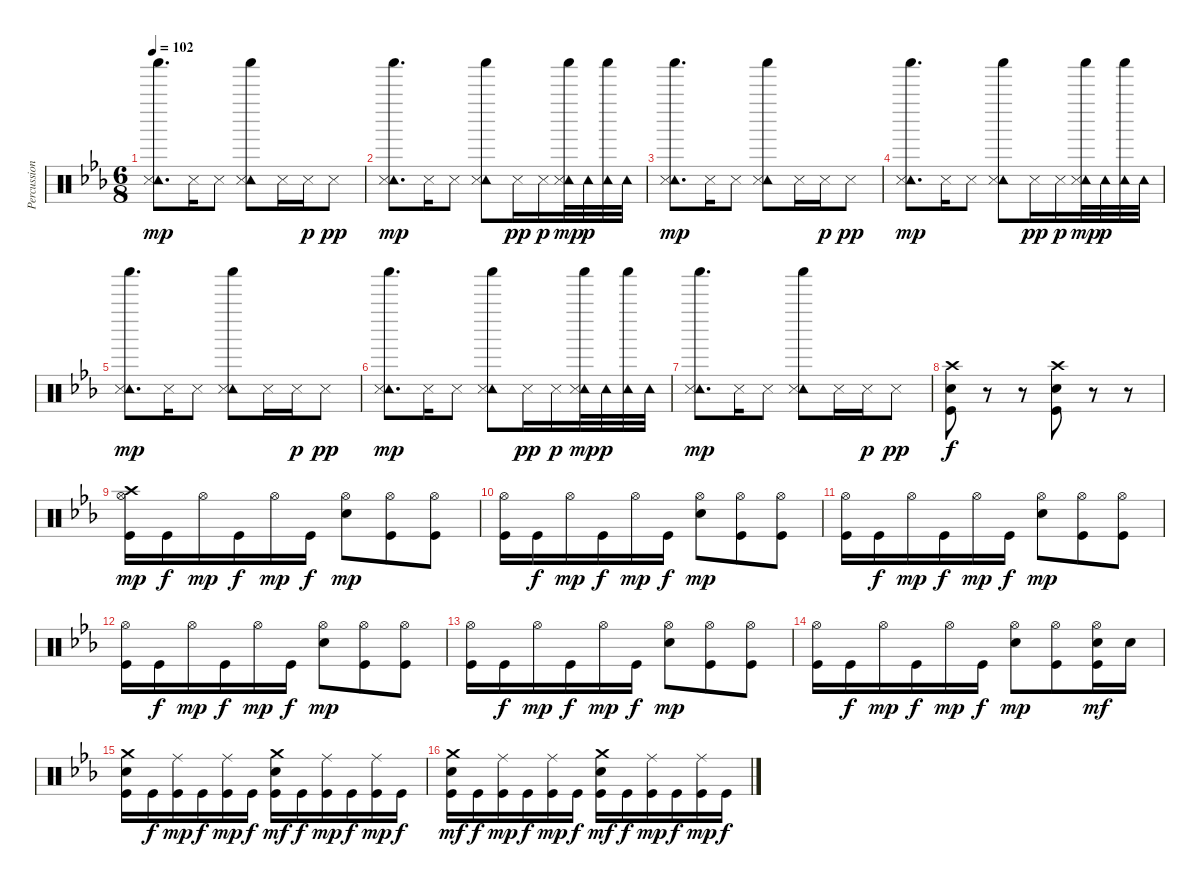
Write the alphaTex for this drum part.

\track ("Percussion" "Percussion") {instrument percussion}
\staff {score}
\articulation defaults
\ts (6 8)
\tempo 102
\clef neutral
\ks cminor
("Shaker (hit)" "Tambourine (hit)" "Metronome (hit)").8{d dy mp} "Metronome (hit)".16 "Metronome (hit)".8 ("Shaker (hit)" "Tambourine (hit)" "Metronome (hit)").8 "Metronome (hit)".16 "Metronome (hit)".16{dy p} "Metronome (hit)".8{dy pp} |
("Shaker (hit)" "Tambourine (hit)" "Metronome (hit)").8{d dy mp} "Metronome (hit)".16 "Metronome (hit)".8 ("Shaker (hit)" "Tambourine (hit)" "Metronome (hit)").8 "Metronome (hit)".16{dy pp} "Metronome (hit)".16{dy p} ("Shaker (hit)" "Tambourine (hit)" "Metronome (hit)").32{dy mp} "Tambourine (hit)".32{dy p} ("Shaker (hit)" "Tambourine (hit)").32 "Tambourine (hit)".32 |
("Shaker (hit)" "Tambourine (hit)" "Metronome (hit)").8{d dy mp} "Metronome (hit)".16 "Metronome (hit)".8 ("Shaker (hit)" "Tambourine (hit)" "Metronome (hit)").8 "Metronome (hit)".16 "Metronome (hit)".16{dy p} "Metronome (hit)".8{dy pp} |
("Shaker (hit)" "Tambourine (hit)" "Metronome (hit)").8{d dy mp} "Metronome (hit)".16 "Metronome (hit)".8 ("Shaker (hit)" "Tambourine (hit)" "Metronome (hit)").8 "Metronome (hit)".16{dy pp} "Metronome (hit)".16{dy p} ("Shaker (hit)" "Tambourine (hit)" "Metronome (hit)").32{dy mp} "Tambourine (hit)".32{dy p} ("Shaker (hit)" "Tambourine (hit)").32 "Tambourine (hit)".32 |
("Shaker (hit)" "Tambourine (hit)" "Metronome (hit)").8{d dy mp} "Metronome (hit)".16 "Metronome (hit)".8 ("Shaker (hit)" "Tambourine (hit)" "Metronome (hit)").8 "Metronome (hit)".16 "Metronome (hit)".16{dy p} "Metronome (hit)".8{dy pp} |
("Shaker (hit)" "Tambourine (hit)" "Metronome (hit)").8{d dy mp} "Metronome (hit)".16 "Metronome (hit)".8 ("Shaker (hit)" "Tambourine (hit)" "Metronome (hit)").8 "Metronome (hit)".16{dy pp} "Metronome (hit)".16{dy p} ("Shaker (hit)" "Tambourine (hit)" "Metronome (hit)").32{dy mp} "Tambourine (hit)".32{dy p} ("Shaker (hit)" "Tambourine (hit)").32 "Tambourine (hit)".32 |
("Shaker (hit)" "Tambourine (hit)" "Metronome (hit)").8{d dy mp} "Metronome (hit)".16 "Metronome (hit)".8 ("Shaker (hit)" "Tambourine (hit)" "Metronome (hit)").8 "Metronome (hit)".16 "Metronome (hit)".16{dy p} "Metronome (hit)".8{dy pp} |
("Crash high (hit)" "Snare (hit) 2" "Kick (hit)").8{dy f} r.8 r.8 ("Crash high (hit)" "Snare (hit) 2" "Kick (hit)").8 r.8 r.8 |
("Crash high (hit)" "Hi-Hat (open)" "Kick (hit)").16{dy mp} "Kick (hit)".16{dy f} "Hi-Hat (open)".16{dy mp} "Kick (hit)".16{dy f} "Hi-Hat (open)".16{dy mp} "Kick (hit)".16{dy f} ("Hi-Hat (open)" "Snare (hit) 2").8{dy mp} ("Hi-Hat (open)" "Kick (hit)").8 ("Hi-Hat (open)" "Kick (hit)").8 |
("Hi-Hat (open)" "Kick (hit)").16 "Kick (hit)".16{dy f} "Hi-Hat (open)".16{dy mp} "Kick (hit)".16{dy f} "Hi-Hat (open)".16{dy mp} "Kick (hit)".16{dy f} ("Hi-Hat (open)" "Snare (hit) 2").8{dy mp} ("Hi-Hat (open)" "Kick (hit)").8 ("Hi-Hat (open)" "Kick (hit)").8 |
("Hi-Hat (open)" "Kick (hit)").16 "Kick (hit)".16{dy f} "Hi-Hat (open)".16{dy mp} "Kick (hit)".16{dy f} "Hi-Hat (open)".16{dy mp} "Kick (hit)".16{dy f} ("Hi-Hat (open)" "Snare (hit) 2").8{dy mp} ("Hi-Hat (open)" "Kick (hit)").8 ("Hi-Hat (open)" "Kick (hit)").8 |
("Hi-Hat (open)" "Kick (hit)").16 "Kick (hit)".16{dy f} "Hi-Hat (open)".16{dy mp} "Kick (hit)".16{dy f} "Hi-Hat (open)".16{dy mp} "Kick (hit)".16{dy f} ("Hi-Hat (open)" "Snare (hit) 2").8{dy mp} ("Hi-Hat (open)" "Kick (hit)").8 ("Hi-Hat (open)" "Kick (hit)").8 |
("Hi-Hat (open)" "Kick (hit)").16 "Kick (hit)".16{dy f} "Hi-Hat (open)".16{dy mp} "Kick (hit)".16{dy f} "Hi-Hat (open)".16{dy mp} "Kick (hit)".16{dy f} ("Hi-Hat (open)" "Snare (hit) 2").8{dy mp} ("Hi-Hat (open)" "Kick (hit)").8 ("Hi-Hat (open)" "Kick (hit)").8 |
("Hi-Hat (open)" "Kick (hit)").16 "Kick (hit)".16{dy f} "Hi-Hat (open)".16{dy mp} "Kick (hit)".16{dy f} "Hi-Hat (open)".16{dy mp} "Kick (hit)".16{dy f} ("Hi-Hat (open)" "Snare (hit) 2").8{dy mp} ("Hi-Hat (open)" "Kick (hit)").8 ("Hi-Hat (open)" "Snare (hit) 2" "Kick (hit)").16{dy mf} "Snare (hit) 2".16 |
("Crash medium (hit)" "Snare (hit) 2" "Kick (hit)").16 "Kick (hit)".16{dy f} ("Ride (middle)" "Kick (hit)").16{dy mp} "Kick (hit)".16{dy f} ("Ride (middle)" "Kick (hit)").16{dy mp} "Kick (hit)".16{dy f} ("Crash medium (hit)" "Snare (hit) 2" "Kick (hit)").16{dy mf} "Kick (hit)".16{dy f} ("Ride (middle)" "Kick (hit)").16{dy mp} "Kick (hit)".16{dy f} ("Ride (middle)" "Kick (hit)").16{dy mp} "Kick (hit)".16{dy f} |
("Crash medium (hit)" "Snare (hit) 2" "Kick (hit)").16{dy mf} "Kick (hit)".16{dy f} ("Ride (middle)" "Kick (hit)").16{dy mp} "Kick (hit)".16{dy f} ("Ride (middle)" "Kick (hit)").16{dy mp} "Kick (hit)".16{dy f} ("Crash medium (hit)" "Snare (hit) 2" "Kick (hit)").16{dy mf} "Kick (hit)".16{dy f} ("Ride (middle)" "Kick (hit)").16{dy mp} "Kick (hit)".16{dy f} ("Ride (middle)" "Kick (hit)").16{dy mp} "Kick (hit)".16{dy f}
